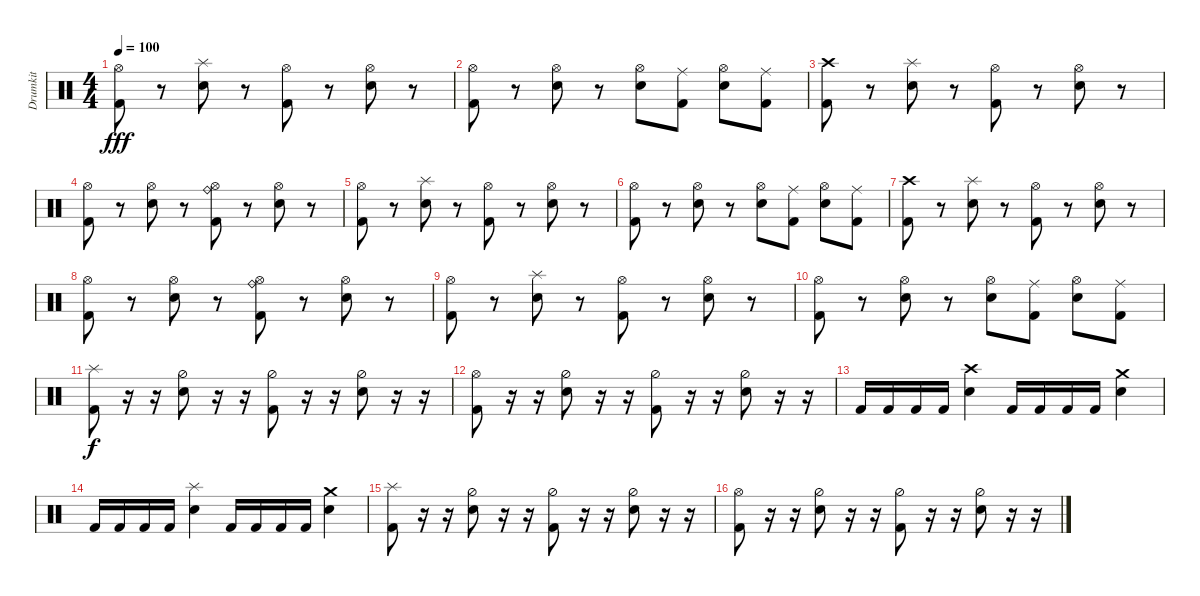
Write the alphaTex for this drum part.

\track ("Drumkit" "Drumkit") {instrument percussion}
\staff {score}
\articulation defaults
\ts (4 4)
\tempo 100
\clef neutral
\ks c
("Kick (hit) 2" "Hi-Hat (open)").8{dy fff} r.8 ("Snare (hit) 2" "Splash (hit)").8 r.8 ("Kick (hit) 2" "Hi-Hat (open)").8 r.8 ("Snare (hit) 2" "Hi-Hat (open)").8 r.8 |
("Kick (hit) 2" "Hi-Hat (open)").8 r.8 ("Snare (hit) 2" "Hi-Hat (open)").8 r.8 ("Snare (hit) 2" "Hi-Hat (open)").8 ("Kick (hit) 2" "Ride (middle)").8 ("Snare (hit) 2" "Hi-Hat (open)").8 ("Kick (hit) 2" "Ride (middle)").8 |
("Kick (hit) 2" "Crash high (hit)").8 r.8 ("Snare (hit) 2" "Splash (hit)").8 r.8 ("Kick (hit) 2" "Hi-Hat (open)").8 r.8 ("Snare (hit) 2" "Hi-Hat (open)").8 r.8 |
("Kick (hit) 2" "Hi-Hat (open)").8 r.8 ("Snare (hit) 2" "Hi-Hat (open)").8 r.8 ("Kick (hit) 2" "Hi-Hat (open)" "Ride (bell)").8 r.8 ("Hi-Hat (open)" "Snare (hit) 2").8 r.8 |
("Kick (hit) 2" "Hi-Hat (open)").8 r.8 ("Snare (hit) 2" "Splash (hit)").8 r.8 ("Kick (hit) 2" "Hi-Hat (open)").8 r.8 ("Snare (hit) 2" "Hi-Hat (open)").8 r.8 |
("Kick (hit) 2" "Hi-Hat (open)").8 r.8 ("Snare (hit) 2" "Hi-Hat (open)").8 r.8 ("Snare (hit) 2" "Hi-Hat (open)").8 ("Kick (hit) 2" "Ride (middle)").8 ("Snare (hit) 2" "Hi-Hat (open)").8 ("Kick (hit) 2" "Ride (middle)").8 |
("Kick (hit) 2" "Crash high (hit)").8 r.8 ("Snare (hit) 2" "Splash (hit)").8 r.8 ("Kick (hit) 2" "Hi-Hat (open)").8 r.8 ("Snare (hit) 2" "Hi-Hat (open)").8 r.8 |
("Kick (hit) 2" "Hi-Hat (open)").8 r.8 ("Snare (hit) 2" "Hi-Hat (open)").8 r.8 ("Kick (hit) 2" "Hi-Hat (open)" "Ride (bell)").8 r.8 ("Hi-Hat (open)" "Snare (hit) 2").8 r.8 |
("Kick (hit) 2" "Hi-Hat (open)").8 r.8 ("Snare (hit) 2" "Splash (hit)").8 r.8 ("Kick (hit) 2" "Hi-Hat (open)").8 r.8 ("Snare (hit) 2" "Hi-Hat (open)").8 r.8 |
("Kick (hit) 2" "Hi-Hat (open)").8 r.8 ("Snare (hit) 2" "Hi-Hat (open)").8 r.8 ("Snare (hit) 2" "Hi-Hat (open)").8 ("Kick (hit) 2" "Ride (middle)").8 ("Snare (hit) 2" "Hi-Hat (open)").8 ("Kick (hit) 2" "Ride (middle)").8 |
("Kick (hit) 2" "Splash (hit)").8{dy f} r.16 r.16 ("Hi-Hat (half)" "Snare (hit) 2").8 r.16 r.16 ("Kick (hit) 2" "Hi-Hat (half)").8 r.16 r.16 ("Snare (hit) 2" "Hi-Hat (half)").8 r.16 r.16 |
("Kick (hit) 2" "Hi-Hat (open)").8 r.16 r.16 ("Hi-Hat (half)" "Snare (hit) 2").8 r.16 r.16 ("Kick (hit) 2" "Hi-Hat (half)").8 r.16 r.16 ("Snare (hit) 2" "Hi-Hat (half)").8 r.16 r.16 |
"Kick (hit) 2".16 "Kick (hit) 2".16 "Kick (hit) 2".16 "Kick (hit) 2".16 ("Snare (hit) 2" "Crash high (hit)").4 "Kick (hit) 2".16 "Kick (hit) 2".16 "Kick (hit) 2".16 "Kick (hit) 2".16 ("Snare (hit) 2" "Crash medium (hit)").4 |
"Kick (hit) 2".16 "Kick (hit) 2".16 "Kick (hit) 2".16 "Kick (hit) 2".16 ("Snare (hit) 2" "Splash (hit)").4 "Kick (hit) 2".16 "Kick (hit) 2".16 "Kick (hit) 2".16 "Kick (hit) 2".16 ("Snare (hit) 2" "Crash medium (hit)").4 |
("Kick (hit) 2" "Splash (hit)").8 r.16 r.16 ("Hi-Hat (half)" "Snare (hit) 2").8 r.16 r.16 ("Kick (hit) 2" "Hi-Hat (half)").8 r.16 r.16 ("Snare (hit) 2" "Hi-Hat (half)").8 r.16 r.16 |
("Kick (hit) 2" "Hi-Hat (open)").8 r.16 r.16 ("Hi-Hat (half)" "Snare (hit) 2").8 r.16 r.16 ("Kick (hit) 2" "Hi-Hat (half)").8 r.16 r.16 ("Snare (hit) 2" "Hi-Hat (half)").8 r.16 r.16
